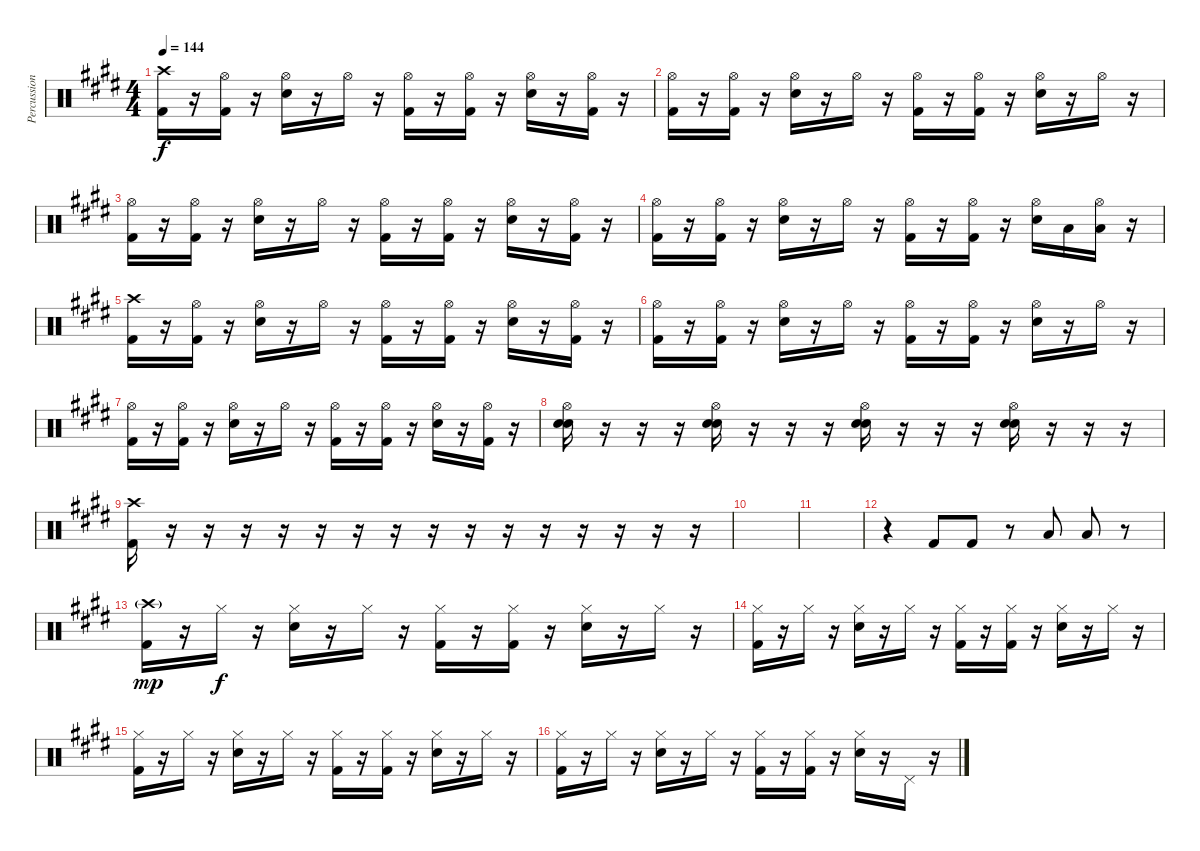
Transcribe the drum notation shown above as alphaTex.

\track ("Percussion" "Percussion") {instrument percussion}
\staff {score}
\articulation defaults
\ts (4 4)
\tempo 144
\clef neutral
\ks e
("Crash high (hit)" "Kick (hit) 2").16{dy f} r.16 ("Hi-Hat (open)" "Kick (hit) 2").16 r.16 ("Hi-Hat (open)" "Snare (hit) 2").16 r.16 "Hi-Hat (open)".16 r.16 ("Hi-Hat (open)" "Kick (hit) 2").16 r.16 ("Hi-Hat (open)" "Kick (hit) 2").16 r.16 ("Hi-Hat (open)" "Snare (hit) 2").16 r.16 ("Hi-Hat (open)" "Kick (hit) 2").16 r.16 |
("Hi-Hat (open)" "Kick (hit) 2").16 r.16 ("Hi-Hat (open)" "Kick (hit) 2").16 r.16 ("Hi-Hat (open)" "Snare (hit) 2").16 r.16 "Hi-Hat (open)".16 r.16 ("Hi-Hat (open)" "Kick (hit) 2").16 r.16 ("Hi-Hat (open)" "Kick (hit) 2").16 r.16 ("Hi-Hat (open)" "Snare (hit) 2").16 r.16 "Hi-Hat (open)".16 r.16 |
("Hi-Hat (open)" "Kick (hit) 2").16 r.16 ("Hi-Hat (open)" "Kick (hit) 2").16 r.16 ("Hi-Hat (open)" "Snare (hit) 2").16 r.16 "Hi-Hat (open)".16 r.16 ("Hi-Hat (open)" "Kick (hit) 2").16 r.16 ("Hi-Hat (open)" "Kick (hit) 2").16 r.16 ("Hi-Hat (open)" "Snare (hit) 2").16 r.16 ("Hi-Hat (open)" "Kick (hit) 2").16 r.16 |
("Hi-Hat (open)" "Kick (hit) 2").16 r.16 ("Hi-Hat (open)" "Kick (hit) 2").16 r.16 ("Hi-Hat (open)" "Snare (hit) 2").16 r.16 "Hi-Hat (open)".16 r.16 ("Hi-Hat (open)" "Kick (hit) 2").16 r.16 ("Hi-Hat (open)" "Kick (hit) 2").16 r.16 ("Hi-Hat (open)" "Snare (hit) 2").16 "Low Tom (hit)".16 ("Hi-Hat (open)" "Low Tom (hit)").16 r.16 |
("Crash high (hit)" "Kick (hit) 2").16 r.16 ("Hi-Hat (open)" "Kick (hit) 2").16 r.16 ("Hi-Hat (open)" "Snare (hit) 2").16 r.16 "Hi-Hat (open)".16 r.16 ("Hi-Hat (open)" "Kick (hit) 2").16 r.16 ("Hi-Hat (open)" "Kick (hit) 2").16 r.16 ("Hi-Hat (open)" "Snare (hit) 2").16 r.16 ("Hi-Hat (open)" "Kick (hit) 2").16 r.16 |
("Hi-Hat (open)" "Kick (hit) 2").16 r.16 ("Hi-Hat (open)" "Kick (hit) 2").16 r.16 ("Hi-Hat (open)" "Snare (hit) 2").16 r.16 "Hi-Hat (open)".16 r.16 ("Hi-Hat (open)" "Kick (hit) 2").16 r.16 ("Hi-Hat (open)" "Kick (hit) 2").16 r.16 ("Hi-Hat (open)" "Snare (hit) 2").16 r.16 "Hi-Hat (open)".16 r.16 |
("Hi-Hat (open)" "Kick (hit) 2").16 r.16 ("Hi-Hat (open)" "Kick (hit) 2").16 r.16 ("Hi-Hat (open)" "Snare (hit) 2").16 r.16 "Hi-Hat (open)".16 r.16 ("Hi-Hat (open)" "Kick (hit) 2").16 r.16 ("Hi-Hat (open)" "Kick (hit) 2").16 r.16 ("Hi-Hat (open)" "Snare (hit) 2").16 r.16 ("Hi-Hat (open)" "Kick (hit) 2").16 r.16 |
("Hi-Hat (open)" "Electric Snare (hit)" "Snare (hit) 2").16 r.16 r.16 r.16 ("Hi-Hat (open)" "Electric Snare (hit)" "Snare (hit) 2").16 r.16 r.16 r.16 ("Hi-Hat (open)" "Electric Snare (hit)" "Snare (hit) 2").16 r.16 r.16 r.16 ("Hi-Hat (open)" "Electric Snare (hit)" "Snare (hit) 2").16 r.16 r.16 r.16 |
("Crash high (hit)" "Kick (hit) 2").16 r.16 r.16 r.16 r.16 r.16 r.16 r.16 r.16 r.16 r.16 r.16 r.16 r.16 r.16 r.16 |
|
|
r.4 "Kick (hit) 2".8 "Kick (hit) 2".8 r.8 "Low Tom (hit)".8 "Low Tom (hit)".8 r.8 |
("Crash high (hit)"{g} "Kick (hit) 2").16{dy mp} r.16 "Hi-Hat (closed)".16{dy f} r.16 ("Hi-Hat (closed)" "Snare (hit) 2").16 r.16 "Hi-Hat (closed)".16 r.16 ("Hi-Hat (closed)" "Kick (hit) 2").16 r.16 ("Hi-Hat (closed)" "Kick (hit) 2").16 r.16 ("Hi-Hat (closed)" "Snare (hit) 2").16 r.16 "Hi-Hat (closed)".16 r.16 |
("Hi-Hat (closed)" "Kick (hit) 2").16 r.16 "Hi-Hat (closed)".16 r.16 ("Hi-Hat (closed)" "Snare (hit) 2").16 r.16 "Hi-Hat (closed)".16 r.16 ("Hi-Hat (closed)" "Kick (hit) 2").16 r.16 ("Hi-Hat (closed)" "Kick (hit) 2").16 r.16 ("Hi-Hat (closed)" "Snare (hit) 2").16 r.16 "Hi-Hat (closed)".16 r.16 |
("Hi-Hat (closed)" "Kick (hit) 2").16 r.16 "Hi-Hat (closed)".16 r.16 ("Hi-Hat (closed)" "Snare (hit) 2").16 r.16 "Hi-Hat (closed)".16 r.16 ("Hi-Hat (closed)" "Kick (hit) 2").16 r.16 ("Hi-Hat (closed)" "Kick (hit) 2").16 r.16 ("Hi-Hat (closed)" "Snare (hit) 2").16 r.16 "Hi-Hat (closed)".16 r.16 |
("Hi-Hat (closed)" "Kick (hit) 2").16 r.16 "Hi-Hat (closed)".16 r.16 ("Hi-Hat (closed)" "Snare (hit) 2").16 r.16 "Hi-Hat (closed)".16 r.16 ("Hi-Hat (closed)" "Kick (hit) 2").16 r.16 ("Hi-Hat (closed)" "Kick (hit) 2").16 r.16 ("Hi-Hat (closed)" "Snare (hit) 2").16 r.16 "Pedal Hi-Hat (hit)".16 r.16
